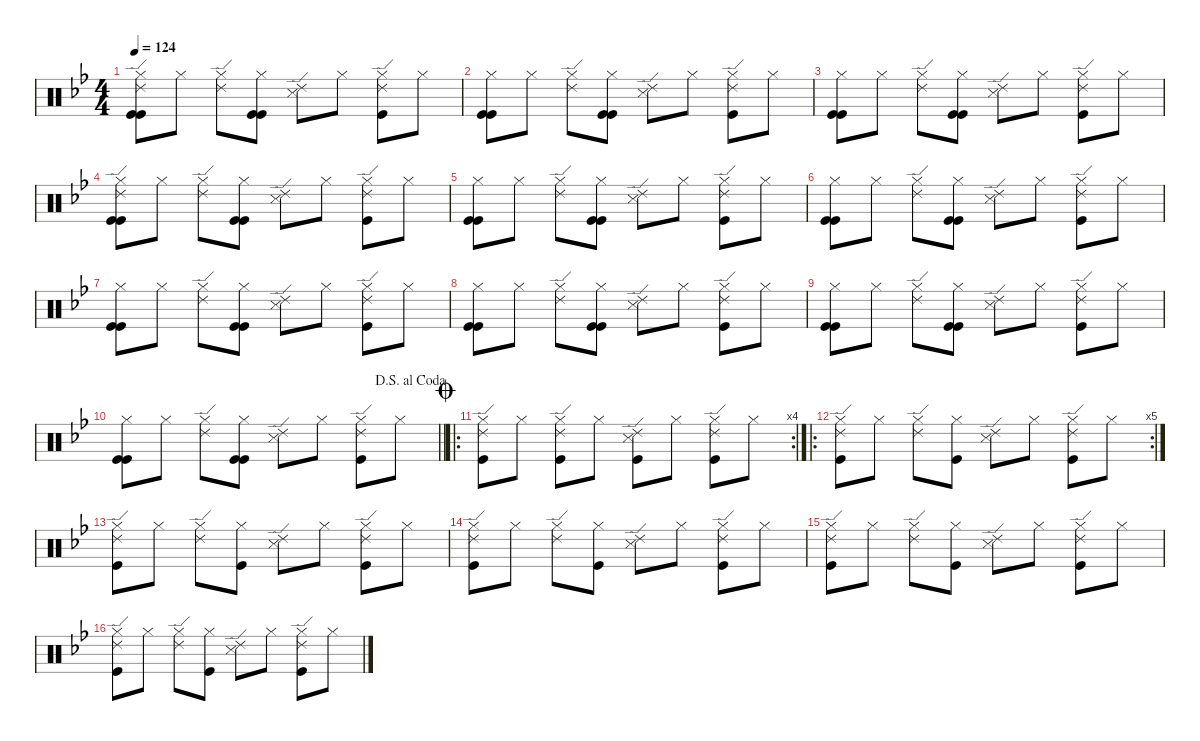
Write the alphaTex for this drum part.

\defaultSystemsLayout 4
\hideDynamics
\bracketExtendMode nobrackets
\singleTrackTrackNamePolicy hidden
\multiTrackTrackNamePolicy hidden
\firstSystemTrackNameMode fullname
\firstSystemTrackNameOrientation horizontal
\otherSystemsTrackNameOrientation horizontal
\track ("Percussion" "drm.") {instrument percussion}
\staff {score}
\articulation defaults
\ts (4 4)
\tempo 124
\clef neutral
\ks gminor
("Ride (edge) 2"{acc forcenatural} "Hi-Hat (closed)"{acc forcenatural} "Kick (hit)"{acc forcenatural} "Kick (hit)"{acc forcenatural}).8{dy f beam Down} "Hi-Hat (closed)"{acc forcenatural}.8{beam Down} ("Ride (edge) 2"{acc forcenatural} "Hi-Hat (closed)"{acc forcenatural}).8{beam Down} ("Hi-Hat (closed)"{acc forcenatural} "Kick (hit)"{acc forcenatural} "Kick (hit)"{acc forcenatural}).8{beam Down} ("Ride (edge) 2"{acc forcenatural} "Snare (side stick) 3"{acc forcenatural}).8{beam Down} "Hi-Hat (closed)"{acc forcenatural}.8{beam Down} ("Ride (edge) 2"{acc forcenatural} "Hi-Hat (closed)"{acc forcenatural} "Kick (hit)"{acc forcenatural}).8{beam Down} "Hi-Hat (closed)"{acc forcenatural}.8{beam Down} |
("Hi-Hat (closed)"{acc forcenatural} "Kick (hit)"{acc forcenatural} "Kick (hit)"{acc forcenatural}).8{beam Down} "Hi-Hat (closed)"{acc forcenatural}.8{beam Down} ("Ride (edge) 2"{acc forcenatural} "Hi-Hat (closed)"{acc forcenatural}).8{beam Down} ("Hi-Hat (closed)"{acc forcenatural} "Kick (hit)"{acc forcenatural} "Kick (hit)"{acc forcenatural}).8{beam Down} ("Ride (edge) 2"{acc forcenatural} "Snare (side stick) 3"{acc forcenatural}).8{beam Down} "Hi-Hat (closed)"{acc forcenatural}.8{beam Down} ("Ride (edge) 2"{acc forcenatural} "Hi-Hat (closed)"{acc forcenatural} "Kick (hit)"{acc forcenatural}).8{beam Down} "Hi-Hat (closed)"{acc forcenatural}.8{beam Down} |
("Hi-Hat (closed)"{acc forcenatural} "Kick (hit)"{acc forcenatural} "Kick (hit)"{acc forcenatural}).8{beam Down} "Hi-Hat (closed)"{acc forcenatural}.8{beam Down} ("Ride (edge) 2"{acc forcenatural} "Hi-Hat (closed)"{acc forcenatural}).8{beam Down} ("Hi-Hat (closed)"{acc forcenatural} "Kick (hit)"{acc forcenatural} "Kick (hit)"{acc forcenatural}).8{beam Down} ("Ride (edge) 2"{acc forcenatural} "Snare (side stick) 3"{acc forcenatural}).8{beam Down} "Hi-Hat (closed)"{acc forcenatural}.8{beam Down} ("Ride (edge) 2"{acc forcenatural} "Hi-Hat (closed)"{acc forcenatural} "Kick (hit)"{acc forcenatural}).8{beam Down} "Hi-Hat (closed)"{acc forcenatural}.8{beam Down} |
("Ride (edge) 2"{acc forcenatural} "Hi-Hat (closed)"{acc forcenatural} "Kick (hit)"{acc forcenatural} "Kick (hit)"{acc forcenatural}).8{beam Down} "Hi-Hat (closed)"{acc forcenatural}.8{beam Down} ("Ride (edge) 2"{acc forcenatural} "Hi-Hat (closed)"{acc forcenatural}).8{beam Down} ("Hi-Hat (closed)"{acc forcenatural} "Kick (hit)"{acc forcenatural} "Kick (hit)"{acc forcenatural}).8{beam Down} ("Ride (edge) 2"{acc forcenatural} "Snare (side stick) 3"{acc forcenatural}).8{beam Down} "Hi-Hat (closed)"{acc forcenatural}.8{beam Down} ("Ride (edge) 2"{acc forcenatural} "Hi-Hat (closed)"{acc forcenatural} "Kick (hit)"{acc forcenatural}).8{beam Down} "Hi-Hat (closed)"{acc forcenatural}.8{beam Down} |
("Hi-Hat (closed)"{acc forcenatural} "Kick (hit)"{acc forcenatural} "Kick (hit)"{acc forcenatural}).8{beam Down} "Hi-Hat (closed)"{acc forcenatural}.8{beam Down} ("Ride (edge) 2"{acc forcenatural} "Hi-Hat (closed)"{acc forcenatural}).8{beam Down} ("Hi-Hat (closed)"{acc forcenatural} "Kick (hit)"{acc forcenatural} "Kick (hit)"{acc forcenatural}).8{beam Down} ("Ride (edge) 2"{acc forcenatural} "Snare (side stick) 3"{acc forcenatural}).8{beam Down} "Hi-Hat (closed)"{acc forcenatural}.8{beam Down} ("Ride (edge) 2"{acc forcenatural} "Hi-Hat (closed)"{acc forcenatural} "Kick (hit)"{acc forcenatural}).8{beam Down} "Hi-Hat (closed)"{acc forcenatural}.8{beam Down} |
("Hi-Hat (closed)"{acc forcenatural} "Kick (hit)"{acc forcenatural} "Kick (hit)"{acc forcenatural}).8{beam Down} "Hi-Hat (closed)"{acc forcenatural}.8{beam Down} ("Ride (edge) 2"{acc forcenatural} "Hi-Hat (closed)"{acc forcenatural}).8{beam Down} ("Hi-Hat (closed)"{acc forcenatural} "Kick (hit)"{acc forcenatural} "Kick (hit)"{acc forcenatural}).8{beam Down} ("Ride (edge) 2"{acc forcenatural} "Snare (side stick) 3"{acc forcenatural}).8{beam Down} "Hi-Hat (closed)"{acc forcenatural}.8{beam Down} ("Ride (edge) 2"{acc forcenatural} "Hi-Hat (closed)"{acc forcenatural} "Kick (hit)"{acc forcenatural}).8{beam Down} "Hi-Hat (closed)"{acc forcenatural}.8{beam Down} |
("Hi-Hat (closed)"{acc forcenatural} "Kick (hit)"{acc forcenatural} "Kick (hit)"{acc forcenatural}).8{beam Down} "Hi-Hat (closed)"{acc forcenatural}.8{beam Down} ("Ride (edge) 2"{acc forcenatural} "Hi-Hat (closed)"{acc forcenatural}).8{beam Down} ("Hi-Hat (closed)"{acc forcenatural} "Kick (hit)"{acc forcenatural} "Kick (hit)"{acc forcenatural}).8{beam Down} ("Ride (edge) 2"{acc forcenatural} "Snare (side stick) 3"{acc forcenatural}).8{beam Down} "Hi-Hat (closed)"{acc forcenatural}.8{beam Down} ("Ride (edge) 2"{acc forcenatural} "Hi-Hat (closed)"{acc forcenatural} "Kick (hit)"{acc forcenatural}).8{beam Down} "Hi-Hat (closed)"{acc forcenatural}.8{beam Down} |
("Hi-Hat (closed)"{acc forcenatural} "Kick (hit)"{acc forcenatural} "Kick (hit)"{acc forcenatural}).8{beam Down} "Hi-Hat (closed)"{acc forcenatural}.8{beam Down} ("Ride (edge) 2"{acc forcenatural} "Hi-Hat (closed)"{acc forcenatural}).8{beam Down} ("Hi-Hat (closed)"{acc forcenatural} "Kick (hit)"{acc forcenatural} "Kick (hit)"{acc forcenatural}).8{beam Down} ("Ride (edge) 2"{acc forcenatural} "Snare (side stick) 3"{acc forcenatural}).8{beam Down} "Hi-Hat (closed)"{acc forcenatural}.8{beam Down} ("Ride (edge) 2"{acc forcenatural} "Hi-Hat (closed)"{acc forcenatural} "Kick (hit)"{acc forcenatural}).8{beam Down} "Hi-Hat (closed)"{acc forcenatural}.8{beam Down} |
("Hi-Hat (closed)"{acc forcenatural} "Kick (hit)"{acc forcenatural} "Kick (hit)"{acc forcenatural}).8{beam Down} "Hi-Hat (closed)"{acc forcenatural}.8{beam Down} ("Ride (edge) 2"{acc forcenatural} "Hi-Hat (closed)"{acc forcenatural}).8{beam Down} ("Hi-Hat (closed)"{acc forcenatural} "Kick (hit)"{acc forcenatural} "Kick (hit)"{acc forcenatural}).8{beam Down} ("Ride (edge) 2"{acc forcenatural} "Snare (side stick) 3"{acc forcenatural}).8{beam Down} "Hi-Hat (closed)"{acc forcenatural}.8{beam Down} ("Ride (edge) 2"{acc forcenatural} "Hi-Hat (closed)"{acc forcenatural} "Kick (hit)"{acc forcenatural}).8{beam Down} "Hi-Hat (closed)"{acc forcenatural}.8{beam Down} |
\jump dalsegnoalcoda
\barLineRight lightlight
("Hi-Hat (closed)"{acc forcenatural} "Kick (hit)"{acc forcenatural} "Kick (hit)"{acc forcenatural}).8{beam Down} "Hi-Hat (closed)"{acc forcenatural}.8{beam Down} ("Ride (edge) 2"{acc forcenatural} "Hi-Hat (closed)"{acc forcenatural}).8{beam Down} ("Hi-Hat (closed)"{acc forcenatural} "Kick (hit)"{acc forcenatural} "Kick (hit)"{acc forcenatural}).8{beam Down} ("Ride (edge) 2"{acc forcenatural} "Snare (side stick) 3"{acc forcenatural}).8{beam Down} "Hi-Hat (closed)"{acc forcenatural}.8{beam Down} ("Ride (edge) 2"{acc forcenatural} "Hi-Hat (closed)"{acc forcenatural} "Kick (hit)"{acc forcenatural}).8{beam Down} "Hi-Hat (closed)"{acc forcenatural}.8{beam Down} |
\ro
\rc 4
\jump coda
("Ride (edge) 2"{acc forcenatural} "Hi-Hat (closed)"{acc forcenatural} "Kick (hit)"{acc forcenatural}).8{beam Down} "Hi-Hat (closed)"{acc forcenatural}.8{beam Down} ("Ride (edge) 2"{acc forcenatural} "Hi-Hat (closed)"{acc forcenatural} "Kick (hit)"{acc forcenatural}).8{beam Down} "Hi-Hat (closed)"{acc forcenatural}.8{beam Down} ("Ride (edge) 2"{acc forcenatural} "Snare (side stick) 3"{acc forcenatural} "Kick (hit)"{acc forcenatural}).8{beam Down} "Hi-Hat (closed)"{acc forcenatural}.8{beam Down} ("Ride (edge) 2"{acc forcenatural} "Hi-Hat (closed)"{acc forcenatural} "Kick (hit)"{acc forcenatural}).8{beam Down} "Hi-Hat (closed)"{acc forcenatural}.8{beam Down} |
\ro
\rc 5
("Ride (edge) 2"{acc forcenatural} "Hi-Hat (closed)"{acc forcenatural} "Kick (hit)"{acc forcenatural}).8{beam Down} "Hi-Hat (closed)"{acc forcenatural}.8{beam Down} ("Ride (edge) 2"{acc forcenatural} "Hi-Hat (closed)"{acc forcenatural}).8{beam Down} ("Hi-Hat (closed)"{acc forcenatural} "Kick (hit)"{acc forcenatural}).8{beam Down} ("Ride (edge) 2"{acc forcenatural} "Snare (side stick) 3"{acc forcenatural}).8{beam Down} "Hi-Hat (closed)"{acc forcenatural}.8{beam Down} ("Ride (edge) 2"{acc forcenatural} "Hi-Hat (closed)"{acc forcenatural} "Kick (hit)"{acc forcenatural}).8{beam Down} "Hi-Hat (closed)"{acc forcenatural}.8{beam Down} |
("Ride (edge) 2"{acc forcenatural} "Hi-Hat (closed)"{acc forcenatural} "Kick (hit)"{acc forcenatural}).8{beam Down} "Hi-Hat (closed)"{acc forcenatural}.8{beam Down} ("Ride (edge) 2"{acc forcenatural} "Hi-Hat (closed)"{acc forcenatural}).8{beam Down} ("Hi-Hat (closed)"{acc forcenatural} "Kick (hit)"{acc forcenatural}).8{beam Down} ("Ride (edge) 2"{acc forcenatural} "Snare (side stick) 3"{acc forcenatural}).8{beam Down} "Hi-Hat (closed)"{acc forcenatural}.8{beam Down} ("Ride (edge) 2"{acc forcenatural} "Hi-Hat (closed)"{acc forcenatural} "Kick (hit)"{acc forcenatural}).8{beam Down} "Hi-Hat (closed)"{acc forcenatural}.8{beam Down} |
("Ride (edge) 2"{acc forcenatural} "Hi-Hat (closed)"{acc forcenatural} "Kick (hit)"{acc forcenatural}).8{beam Down} "Hi-Hat (closed)"{acc forcenatural}.8{beam Down} ("Ride (edge) 2"{acc forcenatural} "Hi-Hat (closed)"{acc forcenatural}).8{beam Down} ("Hi-Hat (closed)"{acc forcenatural} "Kick (hit)"{acc forcenatural}).8{beam Down} ("Ride (edge) 2"{acc forcenatural} "Snare (side stick) 3"{acc forcenatural}).8{beam Down} "Hi-Hat (closed)"{acc forcenatural}.8{beam Down} ("Ride (edge) 2"{acc forcenatural} "Hi-Hat (closed)"{acc forcenatural} "Kick (hit)"{acc forcenatural}).8{beam Down} "Hi-Hat (closed)"{acc forcenatural}.8{beam Down} |
("Ride (edge) 2"{acc forcenatural} "Hi-Hat (closed)"{acc forcenatural} "Kick (hit)"{acc forcenatural}).8{beam Down} "Hi-Hat (closed)"{acc forcenatural}.8{beam Down} ("Ride (edge) 2"{acc forcenatural} "Hi-Hat (closed)"{acc forcenatural}).8{beam Down} ("Hi-Hat (closed)"{acc forcenatural} "Kick (hit)"{acc forcenatural}).8{beam Down} ("Ride (edge) 2"{acc forcenatural} "Snare (side stick) 3"{acc forcenatural}).8{beam Down} "Hi-Hat (closed)"{acc forcenatural}.8{beam Down} ("Ride (edge) 2"{acc forcenatural} "Hi-Hat (closed)"{acc forcenatural} "Kick (hit)"{acc forcenatural}).8{beam Down} "Hi-Hat (closed)"{acc forcenatural}.8{beam Down} |
("Ride (edge) 2"{acc forcenatural} "Hi-Hat (closed)"{acc forcenatural} "Kick (hit)"{acc forcenatural}).8{beam Down} "Hi-Hat (closed)"{acc forcenatural}.8{beam Down} ("Ride (edge) 2"{acc forcenatural} "Hi-Hat (closed)"{acc forcenatural}).8{beam Down} ("Hi-Hat (closed)"{acc forcenatural} "Kick (hit)"{acc forcenatural}).8{beam Down} ("Ride (edge) 2"{acc forcenatural} "Snare (side stick) 3"{acc forcenatural}).8{beam Down} "Hi-Hat (closed)"{acc forcenatural}.8{beam Down} ("Ride (edge) 2"{acc forcenatural} "Hi-Hat (closed)"{acc forcenatural} "Kick (hit)"{acc forcenatural}).8{beam Down} "Hi-Hat (closed)"{acc forcenatural}.8{beam Down}
